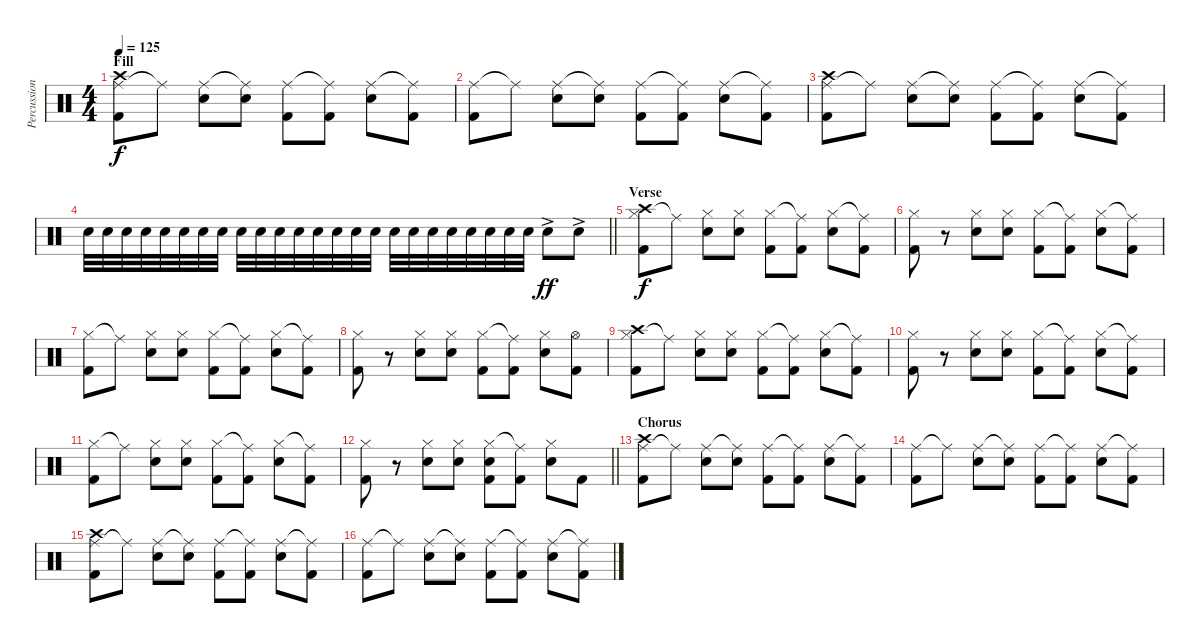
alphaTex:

\track ("Percussion" "Percussion") {instrument percussion}
\staff {score}
\articulation defaults
\ts (4 4)
\section ("" "Fill")
\tempo 125
\clef neutral
\ks c
("Ride (middle)" "Crash high (hit)" "Kick (hit) 2").8{dy f} "Ride (middle)"{t}.8 ("Ride (middle)" "Snare (hit) 2").8 ("Ride (middle)"{t} "Snare (hit) 2").8 ("Ride (middle)" "Kick (hit) 2").8 ("Ride (middle)"{t} "Kick (hit) 2").8 ("Ride (middle)" "Snare (hit) 2").8 ("Ride (middle)"{t} "Kick (hit) 2").8 |
("Ride (middle)" "Kick (hit) 2").8 "Ride (middle)"{t}.8 ("Ride (middle)" "Snare (hit) 2").8 ("Ride (middle)"{t} "Snare (hit) 2").8 ("Ride (middle)" "Kick (hit) 2").8 ("Ride (middle)"{t} "Kick (hit) 2").8 ("Ride (middle)" "Snare (hit) 2").8 ("Ride (middle)"{t} "Kick (hit) 2").8 |
("Ride (middle)" "Crash high (hit)" "Kick (hit) 2").8 "Ride (middle)"{t}.8 ("Ride (middle)" "Snare (hit) 2").8 ("Ride (middle)"{t} "Snare (hit) 2").8 ("Ride (middle)" "Kick (hit) 2").8 ("Ride (middle)"{t} "Kick (hit) 2").8 ("Ride (middle)" "Snare (hit) 2").8 ("Ride (middle)"{t} "Kick (hit) 2").8 |
\barLineRight lightlight "Snare (hit) 2".32{volume 9} "Snare (hit) 2".32 "Snare (hit) 2".32 "Snare (hit)".32 "Snare (hit)".32{volume 13} "Snare (hit) 2".32 "Snare (hit) 2".32 "Snare (hit) 2".32 "Snare (hit) 2".32 "Snare (hit) 2".32 "Snare (hit) 2".32 "Snare (hit) 2".32 "Snare (hit) 2".32 "Snare (hit) 2".32 "Snare (hit) 2".32 "Snare (hit) 2".32 "Snare (hit) 2".32 "Snare (hit) 2".32 "Snare (hit) 2".32 "Snare (hit) 2".32 "Snare (hit) 2".32 "Snare (hit) 2".32 "Snare (hit) 2".32 "Snare (hit) 2".32 "Snare (hit) 2"{ac}.8{dy ff} "Snare (hit) 2"{ac}.8
|
\section ("" "Verse")
("Hi-Hat (closed)" "Crash high (hit)" "Kick (hit) 2").8{dy f} "Ride (middle)"{t}.8 ("Hi-Hat (closed)" "Snare (hit) 2").8 ("Hi-Hat (closed)" "Snare (hit) 2").8 ("Hi-Hat (closed)" "Kick (hit) 2").8 ("Ride (middle)"{t} "Kick (hit) 2").8 ("Hi-Hat (closed)" "Snare (hit) 2").8 ("Ride (middle)"{t} "Kick (hit) 2").8 |
("Hi-Hat (closed)" "Kick (hit) 2").8 r.8 ("Hi-Hat (closed)" "Snare (hit) 2").8 ("Hi-Hat (closed)" "Snare (hit) 2").8 ("Hi-Hat (closed)" "Kick (hit) 2").8 ("Ride (middle)"{t} "Kick (hit) 2").8 ("Hi-Hat (closed)" "Snare (hit) 2").8 ("Ride (middle)"{t} "Kick (hit) 2").8 |
("Hi-Hat (closed)" "Kick (hit) 2").8 "Ride (middle)"{t}.8 ("Hi-Hat (closed)" "Snare (hit) 2").8 ("Hi-Hat (closed)" "Snare (hit) 2").8 ("Hi-Hat (closed)" "Kick (hit) 2").8 ("Ride (middle)"{t} "Kick (hit) 2").8 ("Hi-Hat (closed)" "Snare (hit) 2").8 ("Ride (middle)"{t} "Kick (hit) 2").8 |
("Hi-Hat (closed)" "Kick (hit) 2").8 r.8 ("Hi-Hat (closed)" "Snare (hit) 2").8 ("Hi-Hat (closed)" "Snare (hit) 2").8 ("Hi-Hat (closed)" "Kick (hit) 2").8 ("Ride (middle)"{t} "Kick (hit) 2").8 ("Hi-Hat (closed)" "Snare (hit) 2").8 ("Hi-Hat (open)" "Kick (hit) 2").8 |
("Hi-Hat (closed)" "Crash high (hit)" "Kick (hit) 2").8 "Ride (middle)"{t}.8 ("Hi-Hat (closed)" "Snare (hit) 2").8 ("Hi-Hat (closed)" "Snare (hit) 2").8 ("Hi-Hat (closed)" "Kick (hit) 2").8 ("Ride (middle)"{t} "Kick (hit) 2").8 ("Hi-Hat (closed)" "Snare (hit) 2").8 ("Ride (middle)"{t} "Kick (hit) 2").8 |
("Hi-Hat (closed)" "Kick (hit) 2").8 r.8 ("Hi-Hat (closed)" "Snare (hit) 2").8 ("Hi-Hat (closed)" "Snare (hit) 2").8 ("Hi-Hat (closed)" "Kick (hit) 2").8 ("Ride (middle)"{t} "Kick (hit) 2").8 ("Hi-Hat (closed)" "Snare (hit) 2").8 ("Ride (middle)"{t} "Kick (hit) 2").8 |
("Hi-Hat (closed)" "Kick (hit) 2").8 "Ride (middle)"{t}.8 ("Hi-Hat (closed)" "Snare (hit) 2").8 ("Hi-Hat (closed)" "Snare (hit) 2").8 ("Hi-Hat (closed)" "Kick (hit) 2").8 ("Ride (middle)"{t} "Kick (hit) 2").8 ("Hi-Hat (closed)" "Snare (hit) 2").8 ("Ride (middle)"{t} "Kick (hit) 2").8 |
\barLineRight lightlight
("Hi-Hat (closed)" "Kick (hit) 2").8 r.8 ("Hi-Hat (closed)" "Snare (hit) 2").8 ("Hi-Hat (closed)" "Snare (hit) 2").8 ("Hi-Hat (closed)" "Snare (hit) 2" "Kick (hit) 2").8 ("Ride (middle)"{t} "Kick (hit) 2").8 ("Hi-Hat (closed)" "Snare (hit) 2").8 "Kick (hit) 2".8 |
\section ("" "Chorus")
("Ride (middle)" "Crash high (hit)" "Kick (hit) 2").8 "Ride (middle)"{t}.8 ("Ride (middle)" "Snare (hit) 2").8 ("Ride (middle)"{t} "Snare (hit) 2").8 ("Ride (middle)" "Kick (hit) 2").8 ("Ride (middle)"{t} "Kick (hit) 2").8 ("Ride (middle)" "Snare (hit) 2").8 ("Ride (middle)"{t} "Kick (hit) 2").8 |
("Ride (middle)" "Kick (hit) 2").8 "Ride (middle)"{t}.8 ("Ride (middle)" "Snare (hit) 2").8 ("Ride (middle)"{t} "Snare (hit) 2").8 ("Ride (middle)" "Kick (hit) 2").8 ("Ride (middle)"{t} "Kick (hit) 2").8 ("Ride (middle)" "Snare (hit) 2").8 ("Ride (middle)"{t} "Kick (hit) 2").8 |
("Ride (middle)" "Crash high (hit)" "Kick (hit) 2").8 "Ride (middle)"{t}.8 ("Ride (middle)" "Snare (hit) 2").8 ("Ride (middle)"{t} "Snare (hit) 2").8 ("Ride (middle)" "Kick (hit) 2").8 ("Ride (middle)"{t} "Kick (hit) 2").8 ("Ride (middle)" "Snare (hit) 2").8 ("Ride (middle)"{t} "Kick (hit) 2").8 |
("Ride (middle)" "Kick (hit) 2").8 "Ride (middle)"{t}.8 ("Ride (middle)" "Snare (hit) 2").8 ("Ride (middle)"{t} "Snare (hit) 2").8 ("Ride (middle)" "Kick (hit) 2").8 ("Ride (middle)"{t} "Kick (hit) 2").8 ("Ride (middle)" "Snare (hit) 2").8 ("Ride (middle)"{t} "Kick (hit) 2").8
